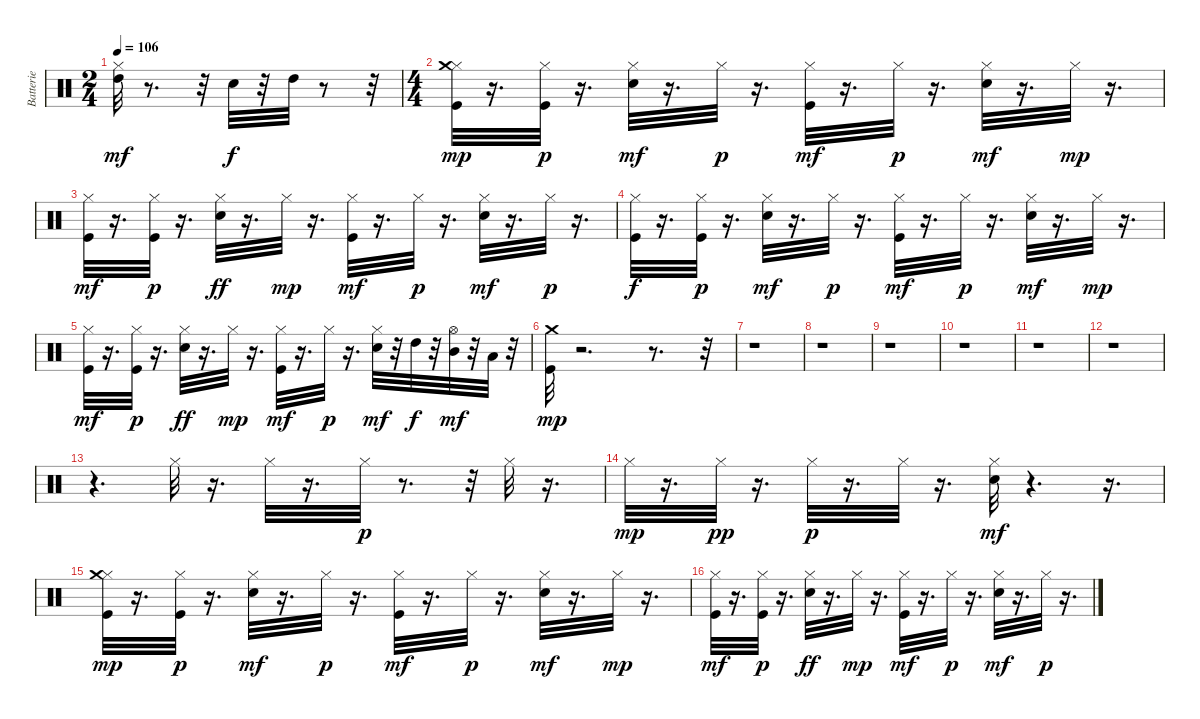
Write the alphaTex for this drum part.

\track ("Batterie" "Batterie") {instrument percussion}
\staff {score}
\articulation defaults
\ts (2 4)
\tempo 106
\clef neutral
\ks c
("High Tom (hit)" "Hi-Hat (closed)").32{dy mf} r.8{d} r.32 "Electric Snare (hit)".32{dy f} r.32 "High Tom (hit)".32 r.8 r.32 |
\ts (4 4)
("Hi-Hat (closed)" "Crash medium (hit)" "Kick (hit)").32{dy mp} r.16{d} ("Hi-Hat (closed)" "Kick (hit)").32{dy p} r.16{d} ("Hi-Hat (closed)" "Electric Snare (hit)").32{dy mf} r.16{d} "Hi-Hat (closed)".32{dy p} r.16{d} ("Hi-Hat (closed)" "Kick (hit)").32{dy mf} r.16{d} "Hi-Hat (closed)".32{dy p} r.16{d} ("Hi-Hat (closed)" "Electric Snare (hit)").32{dy mf} r.16{d} "Hi-Hat (closed)".32{dy mp} r.16{d} |
("Hi-Hat (closed)" "Kick (hit)").32{dy mf} r.16{d} ("Kick (hit)" "Hi-Hat (closed)").32{dy p} r.16{d} ("Hi-Hat (closed)" "Electric Snare (hit)").32{dy ff} r.16{d} "Hi-Hat (closed)".32{dy mp} r.16{d} ("Hi-Hat (closed)" "Kick (hit)").32{dy mf} r.16{d} "Hi-Hat (closed)".32{dy p} r.16{d} ("Hi-Hat (closed)" "Electric Snare (hit)").32{dy mf} r.16{d} "Hi-Hat (closed)".32{dy p} r.16{d} |
("Hi-Hat (closed)" "Kick (hit)").32{dy f} r.16{d} ("Hi-Hat (closed)" "Kick (hit)").32{dy p} r.16{d} ("Hi-Hat (closed)" "Electric Snare (hit)").32{dy mf} r.16{d} "Hi-Hat (closed)".32{dy p} r.16{d} ("Hi-Hat (closed)" "Kick (hit)").32{dy mf} r.16{d} "Hi-Hat (closed)".32{dy p} r.16{d} ("Hi-Hat (closed)" "Electric Snare (hit)").32{dy mf} r.16{d} "Hi-Hat (closed)".32{dy mp} r.16{d} |
("Hi-Hat (closed)" "Kick (hit)").32{dy mf} r.16{d} ("Kick (hit)" "Hi-Hat (closed)").32{dy p} r.16{d} ("Hi-Hat (closed)" "Electric Snare (hit)").32{dy ff} r.16{d} "Hi-Hat (closed)".32{dy mp} r.16{d} ("Hi-Hat (closed)" "Kick (hit)").32{dy mf} r.16{d} "Hi-Hat (closed)".32{dy p} r.16{d} ("Hi-Hat (closed)" "Electric Snare (hit)").32{dy mf} r.32 "High Tom (hit)".32{dy f} r.32 ("Hi-Hat (open)" "Mid Tom (hit)").32{dy mf} r.32 "Low Tom (hit)".32 r.32 |
("Crash medium (hit)" "Kick (hit)").32{dy mp} r.2{d} r.8{d} r.32 |
r.1 |
r.1 |
r.1 |
r.1 |
r.1 |
r.1 |
r.4{d} "Hi-Hat (closed)".32 r.16{d} "Hi-Hat (closed)".32 r.16{d} "Hi-Hat (closed)".32{dy p} r.8{d} r.32 "Hi-Hat (closed)".32 r.16{d} |
"Hi-Hat (closed)".32{dy mp} r.16{d} "Hi-Hat (closed)".32{dy pp} r.16{d} "Hi-Hat (closed)".32{dy p} r.16{d} "Hi-Hat (closed)".32 r.16{d} ("Hand Clap (hit)" "Hi-Hat (closed)").32{dy mf} r.4{d} r.16{d} |
("Hi-Hat (closed)" "Crash medium (hit)" "Kick (hit)").32{dy mp} r.16{d} ("Hi-Hat (closed)" "Kick (hit)").32{dy p} r.16{d} ("Hi-Hat (closed)" "Electric Snare (hit)").32{dy mf} r.16{d} "Hi-Hat (closed)".32{dy p} r.16{d} ("Hi-Hat (closed)" "Kick (hit)").32{dy mf} r.16{d} "Hi-Hat (closed)".32{dy p} r.16{d} ("Hi-Hat (closed)" "Electric Snare (hit)").32{dy mf} r.16{d} "Hi-Hat (closed)".32{dy mp} r.16{d} |
("Hi-Hat (closed)" "Kick (hit)").32{dy mf} r.16{d} ("Kick (hit)" "Hi-Hat (closed)").32{dy p} r.16{d} ("Hi-Hat (closed)" "Electric Snare (hit)").32{dy ff} r.16{d} "Hi-Hat (closed)".32{dy mp} r.16{d} ("Hi-Hat (closed)" "Kick (hit)").32{dy mf} r.16{d} "Hi-Hat (closed)".32{dy p} r.16{d} ("Hi-Hat (closed)" "Electric Snare (hit)").32{dy mf} r.16{d} "Hi-Hat (closed)".32{dy p} r.16{d}
